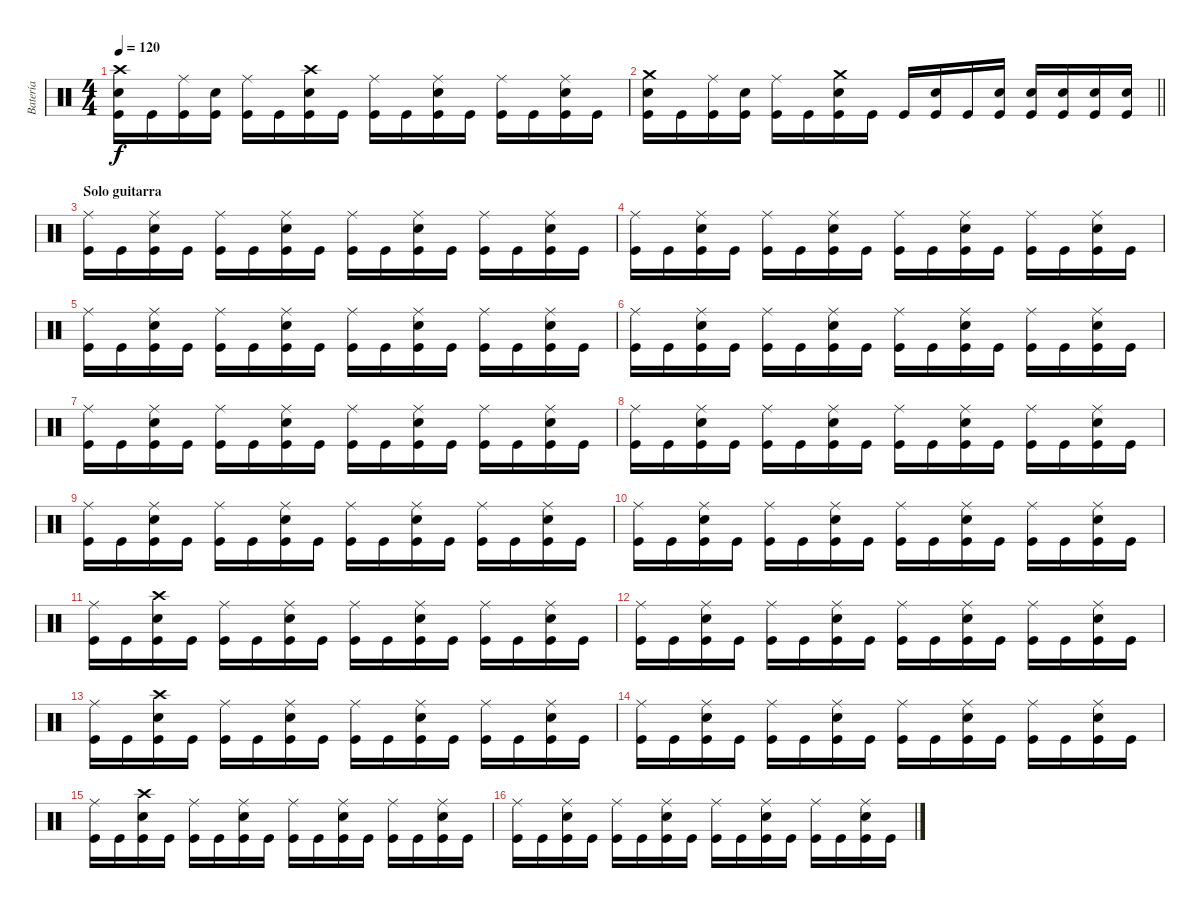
\track ("Batería" "Batería") {instrument percussion}
\staff {score}
\articulation defaults
\ts (4 4)
\tempo 120
\clef neutral
\ks c
("Crash high (hit)" "Snare (hit) 2" "Kick (hit)").16{dy f} "Kick (hit)".16 ("Ride (middle)" "Kick (hit)").16 ("Snare (hit) 2" "Kick (hit)").16 ("Ride (middle)" "Kick (hit)").16 "Kick (hit)".16 ("Crash high (hit)" "Snare (hit) 2" "Kick (hit)").16 "Kick (hit)".16 ("Ride (middle)" "Kick (hit)").16 "Kick (hit)".16 ("Ride (middle)" "Snare (hit) 2" "Kick (hit)").16 "Kick (hit)".16 ("Ride (middle)" "Kick (hit)").16 "Kick (hit)".16 ("Ride (middle)" "Snare (hit) 2" "Kick (hit)").16 "Kick (hit)".16 |
\barLineRight lightlight
("Crash medium (hit)" "Snare (hit) 2" "Kick (hit)").16 "Kick (hit)".16 ("Ride (middle)" "Kick (hit)").16 ("Snare (hit) 2" "Kick (hit)").16 ("Ride (middle)" "Kick (hit)").16 "Kick (hit)".16 ("Crash medium (hit)" "Snare (hit) 2" "Kick (hit)").16 "Kick (hit)".16 "Kick (hit)".16 ("Snare (hit) 2" "Kick (hit)").16 "Kick (hit)".16 ("Snare (hit) 2" "Kick (hit)").16 ("Snare (hit) 2" "Kick (hit)").16 ("Snare (hit) 2" "Kick (hit)").16 ("Snare (hit) 2" "Kick (hit)").16 ("Snare (hit) 2" "Kick (hit)").16 |
\section ("" "Solo guitarra")
("Ride (middle)" "Kick (hit)").16 "Kick (hit)".16 ("Ride (middle)" "Snare (hit) 2" "Kick (hit)").16 "Kick (hit)".16 ("Ride (middle)" "Kick (hit)").16 "Kick (hit)".16 ("Ride (middle)" "Snare (hit) 2" "Kick (hit)").16 "Kick (hit)".16 ("Ride (middle)" "Kick (hit)").16 "Kick (hit)".16 ("Ride (middle)" "Snare (hit) 2" "Kick (hit)").16 "Kick (hit)".16 ("Ride (middle)" "Kick (hit)").16 "Kick (hit)".16 ("Ride (middle)" "Snare (hit) 2" "Kick (hit)").16 "Kick (hit)".16 |
("Ride (middle)" "Kick (hit)").16 "Kick (hit)".16 ("Ride (middle)" "Snare (hit) 2" "Kick (hit)").16 "Kick (hit)".16 ("Ride (middle)" "Kick (hit)").16 "Kick (hit)".16 ("Ride (middle)" "Snare (hit) 2" "Kick (hit)").16 "Kick (hit)".16 ("Ride (middle)" "Kick (hit)").16 "Kick (hit)".16 ("Ride (middle)" "Snare (hit) 2" "Kick (hit)").16 "Kick (hit)".16 ("Ride (middle)" "Kick (hit)").16 "Kick (hit)".16 ("Ride (middle)" "Snare (hit) 2" "Kick (hit)").16 "Kick (hit)".16 |
("Ride (middle)" "Kick (hit)").16 "Kick (hit)".16 ("Ride (middle)" "Snare (hit) 2" "Kick (hit)").16 "Kick (hit)".16 ("Ride (middle)" "Kick (hit)").16 "Kick (hit)".16 ("Ride (middle)" "Snare (hit) 2" "Kick (hit)").16 "Kick (hit)".16 ("Ride (middle)" "Kick (hit)").16 "Kick (hit)".16 ("Ride (middle)" "Snare (hit) 2" "Kick (hit)").16 "Kick (hit)".16 ("Ride (middle)" "Kick (hit)").16 "Kick (hit)".16 ("Ride (middle)" "Snare (hit) 2" "Kick (hit)").16 "Kick (hit)".16 |
("Ride (middle)" "Kick (hit)").16 "Kick (hit)".16 ("Ride (middle)" "Snare (hit) 2" "Kick (hit)").16 "Kick (hit)".16 ("Ride (middle)" "Kick (hit)").16 "Kick (hit)".16 ("Ride (middle)" "Snare (hit) 2" "Kick (hit)").16 "Kick (hit)".16 ("Ride (middle)" "Kick (hit)").16 "Kick (hit)".16 ("Ride (middle)" "Snare (hit) 2" "Kick (hit)").16 "Kick (hit)".16 ("Ride (middle)" "Kick (hit)").16 "Kick (hit)".16 ("Ride (middle)" "Snare (hit) 2" "Kick (hit)").16 "Kick (hit)".16 |
("Ride (middle)" "Kick (hit)").16 "Kick (hit)".16 ("Ride (middle)" "Snare (hit) 2" "Kick (hit)").16 "Kick (hit)".16 ("Ride (middle)" "Kick (hit)").16 "Kick (hit)".16 ("Ride (middle)" "Snare (hit) 2" "Kick (hit)").16 "Kick (hit)".16 ("Ride (middle)" "Kick (hit)").16 "Kick (hit)".16 ("Ride (middle)" "Snare (hit) 2" "Kick (hit)").16 "Kick (hit)".16 ("Ride (middle)" "Kick (hit)").16 "Kick (hit)".16 ("Ride (middle)" "Snare (hit) 2" "Kick (hit)").16 "Kick (hit)".16 |
("Ride (middle)" "Kick (hit)").16 "Kick (hit)".16 ("Ride (middle)" "Snare (hit) 2" "Kick (hit)").16 "Kick (hit)".16 ("Ride (middle)" "Kick (hit)").16 "Kick (hit)".16 ("Ride (middle)" "Snare (hit) 2" "Kick (hit)").16 "Kick (hit)".16 ("Ride (middle)" "Kick (hit)").16 "Kick (hit)".16 ("Ride (middle)" "Snare (hit) 2" "Kick (hit)").16 "Kick (hit)".16 ("Ride (middle)" "Kick (hit)").16 "Kick (hit)".16 ("Ride (middle)" "Snare (hit) 2" "Kick (hit)").16 "Kick (hit)".16 |
("Ride (middle)" "Kick (hit)").16 "Kick (hit)".16 ("Ride (middle)" "Snare (hit) 2" "Kick (hit)").16 "Kick (hit)".16 ("Ride (middle)" "Kick (hit)").16 "Kick (hit)".16 ("Ride (middle)" "Snare (hit) 2" "Kick (hit)").16 "Kick (hit)".16 ("Ride (middle)" "Kick (hit)").16 "Kick (hit)".16 ("Ride (middle)" "Snare (hit) 2" "Kick (hit)").16 "Kick (hit)".16 ("Ride (middle)" "Kick (hit)").16 "Kick (hit)".16 ("Ride (middle)" "Snare (hit) 2" "Kick (hit)").16 "Kick (hit)".16 |
("Ride (middle)" "Kick (hit)").16 "Kick (hit)".16 ("Ride (middle)" "Snare (hit) 2" "Kick (hit)").16 "Kick (hit)".16 ("Ride (middle)" "Kick (hit)").16 "Kick (hit)".16 ("Ride (middle)" "Snare (hit) 2" "Kick (hit)").16 "Kick (hit)".16 ("Ride (middle)" "Kick (hit)").16 "Kick (hit)".16 ("Ride (middle)" "Snare (hit) 2" "Kick (hit)").16 "Kick (hit)".16 ("Ride (middle)" "Kick (hit)").16 "Kick (hit)".16 ("Ride (middle)" "Snare (hit) 2" "Kick (hit)").16 "Kick (hit)".16 |
("Ride (middle)" "Kick (hit)").16 "Kick (hit)".16 ("Crash high (hit)" "Snare (hit) 2" "Kick (hit)").16 "Kick (hit)".16 ("Ride (middle)" "Kick (hit)").16 "Kick (hit)".16 ("Ride (middle)" "Snare (hit) 2" "Kick (hit)").16 "Kick (hit)".16 ("Ride (middle)" "Kick (hit)").16 "Kick (hit)".16 ("Ride (middle)" "Snare (hit) 2" "Kick (hit)").16 "Kick (hit)".16 ("Ride (middle)" "Kick (hit)").16 "Kick (hit)".16 ("Ride (middle)" "Snare (hit) 2" "Kick (hit)").16 "Kick (hit)".16 |
("Ride (middle)" "Kick (hit)").16 "Kick (hit)".16 ("Ride (middle)" "Snare (hit) 2" "Kick (hit)").16 "Kick (hit)".16 ("Ride (middle)" "Kick (hit)").16 "Kick (hit)".16 ("Ride (middle)" "Snare (hit) 2" "Kick (hit)").16 "Kick (hit)".16 ("Ride (middle)" "Kick (hit)").16 "Kick (hit)".16 ("Ride (middle)" "Snare (hit) 2" "Kick (hit)").16 "Kick (hit)".16 ("Ride (middle)" "Kick (hit)").16 "Kick (hit)".16 ("Ride (middle)" "Snare (hit) 2" "Kick (hit)").16 "Kick (hit)".16 |
("Ride (middle)" "Kick (hit)").16 "Kick (hit)".16 ("Crash high (hit)" "Snare (hit) 2" "Kick (hit)").16 "Kick (hit)".16 ("Ride (middle)" "Kick (hit)").16 "Kick (hit)".16 ("Ride (middle)" "Snare (hit) 2" "Kick (hit)").16 "Kick (hit)".16 ("Ride (middle)" "Kick (hit)").16 "Kick (hit)".16 ("Ride (middle)" "Snare (hit) 2" "Kick (hit)").16 "Kick (hit)".16 ("Ride (middle)" "Kick (hit)").16 "Kick (hit)".16 ("Ride (middle)" "Snare (hit) 2" "Kick (hit)").16 "Kick (hit)".16 |
("Ride (middle)" "Kick (hit)").16 "Kick (hit)".16 ("Ride (middle)" "Snare (hit) 2" "Kick (hit)").16 "Kick (hit)".16 ("Ride (middle)" "Kick (hit)").16 "Kick (hit)".16 ("Ride (middle)" "Snare (hit) 2" "Kick (hit)").16 "Kick (hit)".16 ("Ride (middle)" "Kick (hit)").16 "Kick (hit)".16 ("Ride (middle)" "Snare (hit) 2" "Kick (hit)").16 "Kick (hit)".16 ("Ride (middle)" "Kick (hit)").16 "Kick (hit)".16 ("Ride (middle)" "Snare (hit) 2" "Kick (hit)").16 "Kick (hit)".16 |
("Ride (middle)" "Kick (hit)").16 "Kick (hit)".16 ("Crash high (hit)" "Snare (hit) 2" "Kick (hit)").16 "Kick (hit)".16 ("Ride (middle)" "Kick (hit)").16 "Kick (hit)".16 ("Ride (middle)" "Snare (hit) 2" "Kick (hit)").16 "Kick (hit)".16 ("Ride (middle)" "Kick (hit)").16 "Kick (hit)".16 ("Ride (middle)" "Snare (hit) 2" "Kick (hit)").16 "Kick (hit)".16 ("Ride (middle)" "Kick (hit)").16 "Kick (hit)".16 ("Ride (middle)" "Snare (hit) 2" "Kick (hit)").16 "Kick (hit)".16 |
("Ride (middle)" "Kick (hit)").16 "Kick (hit)".16 ("Ride (middle)" "Snare (hit) 2" "Kick (hit)").16 "Kick (hit)".16 ("Ride (middle)" "Kick (hit)").16 "Kick (hit)".16 ("Ride (middle)" "Snare (hit) 2" "Kick (hit)").16 "Kick (hit)".16 ("Ride (middle)" "Kick (hit)").16 "Kick (hit)".16 ("Ride (middle)" "Snare (hit) 2" "Kick (hit)").16 "Kick (hit)".16 ("Ride (middle)" "Kick (hit)").16 "Kick (hit)".16 ("Ride (middle)" "Snare (hit) 2" "Kick (hit)").16 "Kick (hit)".16
